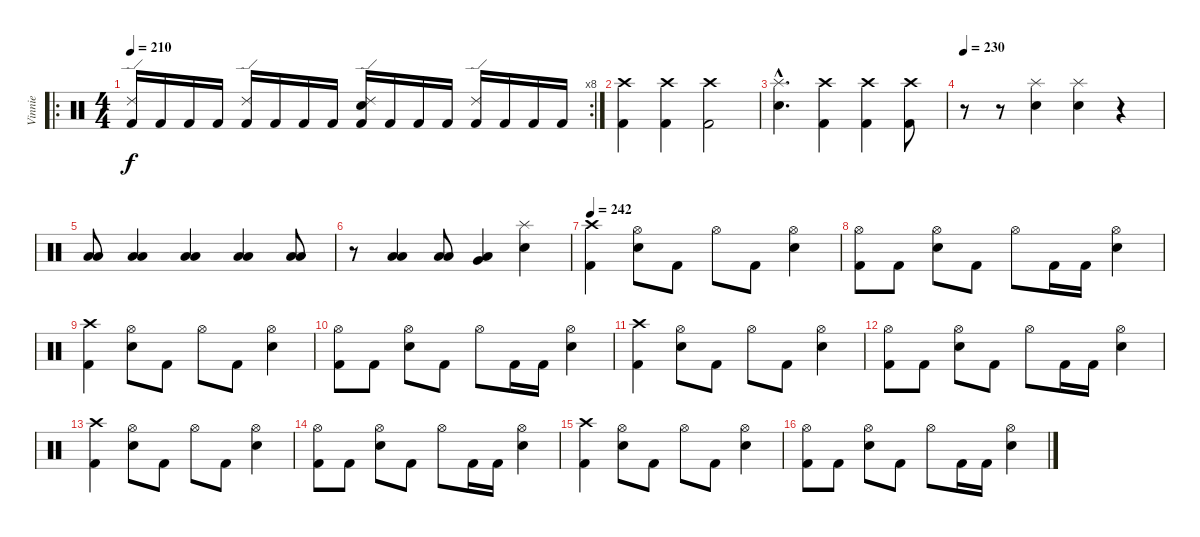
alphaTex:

\track ("Vinnie" "Vinnie") {instrument percussion}
\staff {score}
\articulation defaults
\ro
\rc 8
\ts (4 4)
\tempo 210
\clef neutral
\ks c
("Ride (edge) 2" "Kick (hit) 2").16{dy f} "Kick (hit) 2".16 "Kick (hit) 2".16 "Kick (hit) 2".16 ("Ride (edge) 2" "Kick (hit) 2").16 "Kick (hit) 2".16 "Kick (hit) 2".16 "Kick (hit) 2".16 ("Ride (edge) 2" "Snare (hit) 2" "Kick (hit) 2").16 "Kick (hit) 2".16 "Kick (hit) 2".16 "Kick (hit) 2".16 ("Ride (edge) 2" "Kick (hit) 2").16 "Kick (hit) 2".16 "Kick (hit) 2".16 "Kick (hit) 2".16 |
("Crash high (hit)" "Kick (hit) 2").4 ("Crash high (hit)" "Kick (hit) 2").4 ("Crash high (hit)" "Kick (hit) 2").2 |
("Splash (hit)"{hac} "Snare (hit) 2"{hac}).4{d} ("Crash high (hit)" "Kick (hit) 2").4 ("Crash high (hit)" "Kick (hit) 2").4 ("Crash high (hit)" "Kick (hit) 2").8 |
\tempo 230
r.8 r.8 ("Splash (hit)" "Snare (hit) 2").4 ("Splash (hit)" "Snare (hit) 2").4 r.4 |
("Low Tom (hit)" "Low Floor Tom (hit)").8 ("Low Tom (hit)" "Low Floor Tom (hit)").4 ("Low Tom (hit)" "Low Floor Tom (hit)").4 ("Low Tom (hit)" "Low Floor Tom (hit)").4 ("Low Tom (hit)" "Low Floor Tom (hit)").8 |
r.8 ("Low Tom (hit)" "Low Floor Tom (hit)").4 ("Low Tom (hit)" "Low Floor Tom (hit)").8 ("Low Tom (hit)" "Very Low Tom (hit)").4 ("Splash (hit)" "Snare (hit) 2").4 |
\tempo 242
("Crash high (hit)" "Kick (hit) 2").4 ("Hi-Hat (open)" "Snare (hit) 2").8 "Kick (hit) 2".8 "Hi-Hat (open)".8 "Kick (hit) 2".8 ("Hi-Hat (open)" "Snare (hit) 2").4 |
("Hi-Hat (open)" "Kick (hit) 2").8 "Kick (hit) 2".8 ("Hi-Hat (open)" "Snare (hit) 2").8 "Kick (hit) 2".8 "Hi-Hat (open)".8 "Kick (hit) 2".16 "Kick (hit) 2".16 ("Hi-Hat (open)" "Snare (hit) 2").4 |
("Crash high (hit)" "Kick (hit) 2").4 ("Hi-Hat (open)" "Snare (hit) 2").8 "Kick (hit) 2".8 "Hi-Hat (open)".8 "Kick (hit) 2".8 ("Hi-Hat (open)" "Snare (hit) 2").4 |
("Hi-Hat (open)" "Kick (hit) 2").8 "Kick (hit) 2".8 ("Hi-Hat (open)" "Snare (hit) 2").8 "Kick (hit) 2".8 "Hi-Hat (open)".8 "Kick (hit) 2".16 "Kick (hit) 2".16 ("Hi-Hat (open)" "Snare (hit) 2").4 |
("Crash high (hit)" "Kick (hit) 2").4 ("Hi-Hat (open)" "Snare (hit) 2").8 "Kick (hit) 2".8 "Hi-Hat (open)".8 "Kick (hit) 2".8 ("Hi-Hat (open)" "Snare (hit) 2").4 |
("Hi-Hat (open)" "Kick (hit) 2").8 "Kick (hit) 2".8 ("Hi-Hat (open)" "Snare (hit) 2").8 "Kick (hit) 2".8 "Hi-Hat (open)".8 "Kick (hit) 2".16 "Kick (hit) 2".16 ("Hi-Hat (open)" "Snare (hit) 2").4 |
("Crash high (hit)" "Kick (hit) 2").4 ("Hi-Hat (open)" "Snare (hit) 2").8 "Kick (hit) 2".8 "Hi-Hat (open)".8 "Kick (hit) 2".8 ("Hi-Hat (open)" "Snare (hit) 2").4 |
("Hi-Hat (open)" "Kick (hit) 2").8 "Kick (hit) 2".8 ("Hi-Hat (open)" "Snare (hit) 2").8 "Kick (hit) 2".8 "Hi-Hat (open)".8 "Kick (hit) 2".16 "Kick (hit) 2".16 ("Hi-Hat (open)" "Snare (hit) 2").4 |
("Crash high (hit)" "Kick (hit) 2").4 ("Hi-Hat (open)" "Snare (hit) 2").8 "Kick (hit) 2".8 "Hi-Hat (open)".8 "Kick (hit) 2".8 ("Hi-Hat (open)" "Snare (hit) 2").4 |
("Hi-Hat (open)" "Kick (hit) 2").8 "Kick (hit) 2".8 ("Hi-Hat (open)" "Snare (hit) 2").8 "Kick (hit) 2".8 "Hi-Hat (open)".8 "Kick (hit) 2".16 "Kick (hit) 2".16 ("Hi-Hat (open)" "Snare (hit) 2").4
